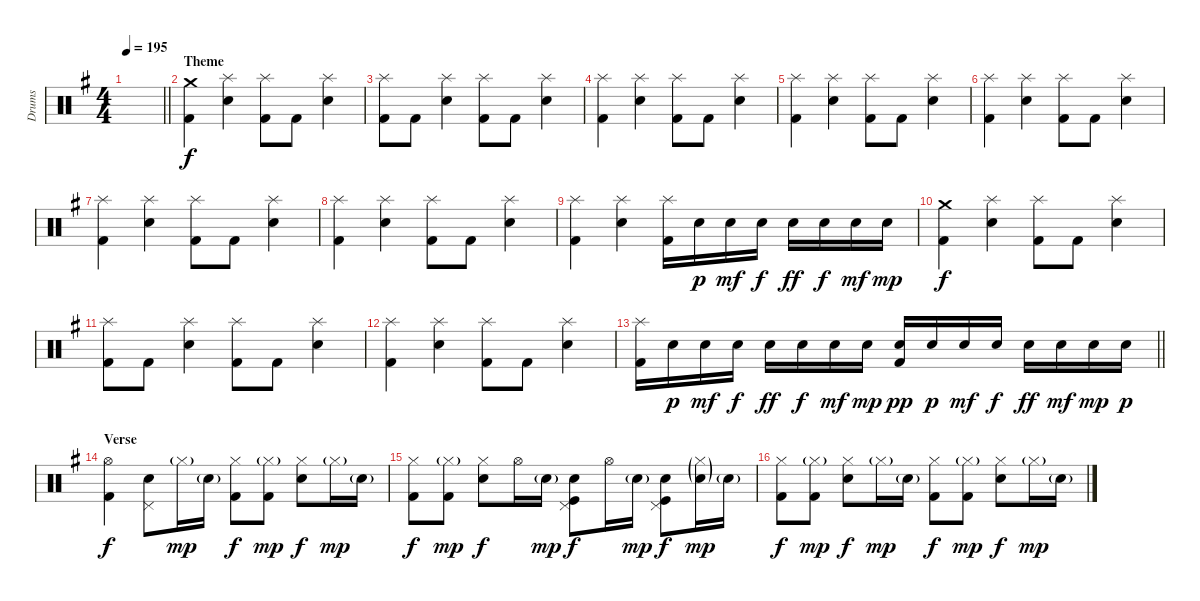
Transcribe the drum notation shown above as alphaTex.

\track ("Drums" "Drums") {instrument percussion}
\staff {score}
\articulation defaults
\ts (4 4)
\tempo 195
\clef neutral
\barLineRight lightlight
\ks g
|
\section ("" "Theme")
("Crash medium (hit)" "Kick (hit) 2").4 ("Splash (hit)" "Electric Snare (hit)").4 ("Splash (hit)" "Kick (hit) 2").8 "Kick (hit) 2".8 ("Splash (hit)" "Electric Snare (hit)").4 |
("Splash (hit)" "Kick (hit) 2").8 "Kick (hit) 2".8 ("Splash (hit)" "Electric Snare (hit)").4 ("Splash (hit)" "Kick (hit) 2").8 "Kick (hit) 2".8 ("Splash (hit)" "Electric Snare (hit)").4 |
("Splash (hit)" "Kick (hit) 2").4 ("Splash (hit)" "Electric Snare (hit)").4 ("Splash (hit)" "Kick (hit) 2").8 "Kick (hit) 2".8 ("Splash (hit)" "Electric Snare (hit)").4 |
("Splash (hit)" "Kick (hit) 2").4 ("Splash (hit)" "Electric Snare (hit)").4 ("Splash (hit)" "Kick (hit) 2").8 "Kick (hit) 2".8 ("Splash (hit)" "Electric Snare (hit)").4 |
("Splash (hit)" "Kick (hit) 2").4 ("Splash (hit)" "Electric Snare (hit)").4 ("Splash (hit)" "Kick (hit) 2").8 "Kick (hit) 2".8 ("Splash (hit)" "Electric Snare (hit)").4 |
("Splash (hit)" "Kick (hit) 2").4 ("Splash (hit)" "Electric Snare (hit)").4 ("Splash (hit)" "Kick (hit) 2").8 "Kick (hit) 2".8 ("Splash (hit)" "Electric Snare (hit)").4 |
("Splash (hit)" "Kick (hit) 2").4 ("Splash (hit)" "Electric Snare (hit)").4 ("Splash (hit)" "Kick (hit) 2").8 "Kick (hit) 2".8 ("Splash (hit)" "Electric Snare (hit)").4 |
("Splash (hit)" "Kick (hit) 2").4 ("Splash (hit)" "Electric Snare (hit)").4 ("Splash (hit)" "Kick (hit) 2").16 "Electric Snare (hit)".16{dy p} "Electric Snare (hit)".16{dy mf} "Electric Snare (hit)".16{dy f} "Electric Snare (hit)".16{dy ff} "Electric Snare (hit)".16{dy f} "Electric Snare (hit)".16{dy mf} "Electric Snare (hit)".16{dy mp} |
("Crash medium (hit)" "Kick (hit) 2").4{dy f} ("Splash (hit)" "Electric Snare (hit)").4 ("Splash (hit)" "Kick (hit) 2").8 "Kick (hit) 2".8 ("Splash (hit)" "Electric Snare (hit)").4 |
("Splash (hit)" "Kick (hit) 2").8 "Kick (hit) 2".8 ("Splash (hit)" "Electric Snare (hit)").4 ("Splash (hit)" "Kick (hit) 2").8 "Kick (hit) 2".8 ("Splash (hit)" "Electric Snare (hit)").4 |
("Splash (hit)" "Kick (hit) 2").4 ("Splash (hit)" "Electric Snare (hit)").4 ("Splash (hit)" "Kick (hit) 2").8 "Kick (hit) 2".8 ("Splash (hit)" "Electric Snare (hit)").4 |
\barLineRight lightlight
("Splash (hit)" "Kick (hit) 2").16 "Electric Snare (hit)".16{dy p} "Electric Snare (hit)".16{dy mf} "Electric Snare (hit)".16{dy f} "Electric Snare (hit)".16{dy ff} "Electric Snare (hit)".16{dy f} "Electric Snare (hit)".16{dy mf} "Electric Snare (hit)".16{dy mp} ("Electric Snare (hit)" "Kick (hit) 2").16{dy pp} "Electric Snare (hit)".16{dy p} "Electric Snare (hit)".16{dy mf} "Electric Snare (hit)".16{dy f} "Electric Snare (hit)".16{dy ff} "Electric Snare (hit)".16{dy mf} "Electric Snare (hit)".16{dy mp} "Electric Snare (hit)".16{dy p} |
\section ("" "Verse")
("Hi-Hat (open)" "Kick (hit) 2").4{dy f} ("Pedal Hi-Hat (hit)" "Electric Snare (hit)").8 "Hi-Hat (closed)"{g}.16{dy mp} "Electric Snare (hit)"{g}.16 ("Hi-Hat (closed)" "Kick (hit) 2").8{dy f} ("Hi-Hat (closed)"{g} "Kick (hit) 2").8{dy mp} ("Hi-Hat (closed)" "Electric Snare (hit)").8{dy f} "Hi-Hat (closed)"{g}.16{dy mp} "Electric Snare (hit)"{g}.16 |
("Hi-Hat (closed)" "Kick (hit) 2").8{dy f} ("Hi-Hat (closed)"{g} "Kick (hit) 2").8{dy mp} ("Hi-Hat (closed)" "Electric Snare (hit)").8{dy f} "Hi-Hat (open)".16 "Electric Snare (hit)"{g}.16{dy mp} ("Pedal Hi-Hat (hit)" "Electric Snare (hit)" "Kick (hit)").8{dy f} "Hi-Hat (open)".16 "Electric Snare (hit)"{g}.16{dy mp} ("Pedal Hi-Hat (hit)" "Electric Snare (hit)" "Kick (hit)").8{dy f} ("Hi-Hat (closed)"{g} "Electric Snare (hit)"{g}).16{dy mp} "Electric Snare (hit)"{g}.16 |
("Hi-Hat (closed)" "Kick (hit) 2").8{dy f} ("Hi-Hat (closed)"{g} "Kick (hit) 2").8{dy mp} ("Hi-Hat (closed)" "Electric Snare (hit)").8{dy f} "Hi-Hat (closed)"{g}.16{dy mp} "Electric Snare (hit)"{g}.16 ("Hi-Hat (closed)" "Kick (hit) 2").8{dy f} ("Hi-Hat (closed)"{g} "Kick (hit) 2").8{dy mp} ("Hi-Hat (closed)" "Electric Snare (hit)").8{dy f} "Hi-Hat (closed)"{g}.16{dy mp} "Electric Snare (hit)"{g}.16
